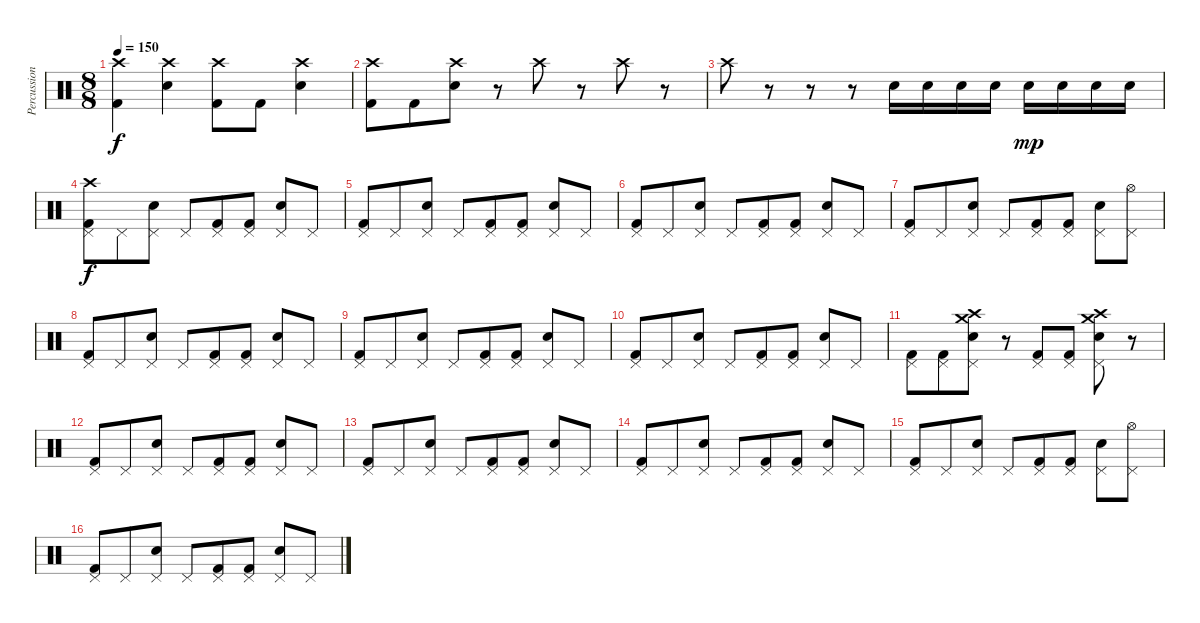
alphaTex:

\track ("Percussion" "Percussion") {instrument percussion}
\staff {score}
\articulation defaults
\ts (8 8)
\tempo 150
\clef neutral
\ks c
("Crash high (hit)" "Kick (hit) 2").4{dy f} ("Crash high (hit)" "Snare (hit) 2").4 ("Crash high (hit)" "Kick (hit) 2").8 "Kick (hit) 2".8 ("Crash high (hit)" "Snare (hit) 2").4 |
("Crash high (hit)" "Kick (hit) 2").8 "Kick (hit) 2".8 ("Crash high (hit)" "Snare (hit) 2").8 r.8 "Crash high (hit)".8 r.8 "Crash high (hit)".8 r.8 |
"Crash high (hit)".8 r.8 r.8 r.8 "Snare (hit) 2".16 "Snare (hit) 2".16 "Snare (hit) 2".16 "Snare (hit) 2".16 "Snare (hit) 2".16{dy mp} "Snare (hit) 2".16 "Snare (hit) 2".16 "Snare (hit) 2".16 |
("Pedal Hi-Hat (hit)" "Crash high (hit)" "Kick (hit) 2").8{dy f} "Pedal Hi-Hat (hit)".8 ("Pedal Hi-Hat (hit)" "Snare (hit) 2").8 "Pedal Hi-Hat (hit)".8 ("Pedal Hi-Hat (hit)" "Kick (hit) 2").8 ("Pedal Hi-Hat (hit)" "Kick (hit) 2").8 ("Pedal Hi-Hat (hit)" "Snare (hit) 2").8 "Pedal Hi-Hat (hit)".8 |
("Pedal Hi-Hat (hit)" "Kick (hit) 2").8 "Pedal Hi-Hat (hit)".8 ("Pedal Hi-Hat (hit)" "Snare (hit) 2").8 "Pedal Hi-Hat (hit)".8 ("Pedal Hi-Hat (hit)" "Kick (hit) 2").8 ("Pedal Hi-Hat (hit)" "Kick (hit) 2").8 ("Pedal Hi-Hat (hit)" "Snare (hit) 2").8 "Pedal Hi-Hat (hit)".8 |
("Pedal Hi-Hat (hit)" "Kick (hit) 2").8 "Pedal Hi-Hat (hit)".8 ("Pedal Hi-Hat (hit)" "Snare (hit) 2").8 "Pedal Hi-Hat (hit)".8 ("Pedal Hi-Hat (hit)" "Kick (hit) 2").8 ("Pedal Hi-Hat (hit)" "Kick (hit) 2").8 ("Pedal Hi-Hat (hit)" "Snare (hit) 2").8 "Pedal Hi-Hat (hit)".8 |
("Pedal Hi-Hat (hit)" "Kick (hit) 2").8 "Pedal Hi-Hat (hit)".8 ("Pedal Hi-Hat (hit)" "Snare (hit) 2").8 "Pedal Hi-Hat (hit)".8 ("Pedal Hi-Hat (hit)" "Kick (hit) 2").8 ("Pedal Hi-Hat (hit)" "Kick (hit) 2").8 ("Pedal Hi-Hat (hit)" "Snare (hit) 2").8 ("Pedal Hi-Hat (hit)" "Hi-Hat (open)").8 |
("Pedal Hi-Hat (hit)" "Kick (hit) 2").8 "Pedal Hi-Hat (hit)".8 ("Pedal Hi-Hat (hit)" "Snare (hit) 2").8 "Pedal Hi-Hat (hit)".8 ("Pedal Hi-Hat (hit)" "Kick (hit) 2").8 ("Pedal Hi-Hat (hit)" "Kick (hit) 2").8 ("Pedal Hi-Hat (hit)" "Snare (hit) 2").8 "Pedal Hi-Hat (hit)".8 |
("Pedal Hi-Hat (hit)" "Kick (hit) 2").8 "Pedal Hi-Hat (hit)".8 ("Pedal Hi-Hat (hit)" "Snare (hit) 2").8 "Pedal Hi-Hat (hit)".8 ("Pedal Hi-Hat (hit)" "Kick (hit) 2").8 ("Pedal Hi-Hat (hit)" "Kick (hit) 2").8 ("Pedal Hi-Hat (hit)" "Snare (hit) 2").8 "Pedal Hi-Hat (hit)".8 |
("Pedal Hi-Hat (hit)" "Kick (hit) 2").8 "Pedal Hi-Hat (hit)".8 ("Pedal Hi-Hat (hit)" "Snare (hit) 2").8 "Pedal Hi-Hat (hit)".8 ("Pedal Hi-Hat (hit)" "Kick (hit) 2").8 ("Pedal Hi-Hat (hit)" "Kick (hit) 2").8 ("Pedal Hi-Hat (hit)" "Snare (hit) 2").8 "Pedal Hi-Hat (hit)".8 |
("Pedal Hi-Hat (hit)" "Kick (hit) 2").8 ("Pedal Hi-Hat (hit)" "Kick (hit) 2").8 ("Pedal Hi-Hat (hit)" "Crash medium (hit)" "Crash high (hit)" "Snare (hit) 2").8 r.8 ("Pedal Hi-Hat (hit)" "Kick (hit) 2").8 ("Pedal Hi-Hat (hit)" "Kick (hit) 2").8 ("Pedal Hi-Hat (hit)" "Crash medium (hit)" "Crash high (hit)" "Snare (hit) 2").8 r.8 |
("Pedal Hi-Hat (hit)" "Kick (hit) 2").8 "Pedal Hi-Hat (hit)".8 ("Pedal Hi-Hat (hit)" "Snare (hit) 2").8 "Pedal Hi-Hat (hit)".8 ("Pedal Hi-Hat (hit)" "Kick (hit) 2").8 ("Pedal Hi-Hat (hit)" "Kick (hit) 2").8 ("Pedal Hi-Hat (hit)" "Snare (hit) 2").8 "Pedal Hi-Hat (hit)".8 |
("Pedal Hi-Hat (hit)" "Kick (hit) 2").8 "Pedal Hi-Hat (hit)".8 ("Pedal Hi-Hat (hit)" "Snare (hit) 2").8 "Pedal Hi-Hat (hit)".8 ("Pedal Hi-Hat (hit)" "Kick (hit) 2").8 ("Pedal Hi-Hat (hit)" "Kick (hit) 2").8 ("Pedal Hi-Hat (hit)" "Snare (hit) 2").8 "Pedal Hi-Hat (hit)".8 |
("Pedal Hi-Hat (hit)" "Kick (hit) 2").8 "Pedal Hi-Hat (hit)".8 ("Pedal Hi-Hat (hit)" "Snare (hit) 2").8 "Pedal Hi-Hat (hit)".8 ("Pedal Hi-Hat (hit)" "Kick (hit) 2").8 ("Pedal Hi-Hat (hit)" "Kick (hit) 2").8 ("Pedal Hi-Hat (hit)" "Snare (hit) 2").8 "Pedal Hi-Hat (hit)".8 |
("Pedal Hi-Hat (hit)" "Kick (hit) 2").8 "Pedal Hi-Hat (hit)".8 ("Pedal Hi-Hat (hit)" "Snare (hit) 2").8 "Pedal Hi-Hat (hit)".8 ("Pedal Hi-Hat (hit)" "Kick (hit) 2").8 ("Pedal Hi-Hat (hit)" "Kick (hit) 2").8 ("Pedal Hi-Hat (hit)" "Snare (hit) 2").8 ("Pedal Hi-Hat (hit)" "Hi-Hat (open)").8 |
("Pedal Hi-Hat (hit)" "Kick (hit) 2").8 "Pedal Hi-Hat (hit)".8 ("Pedal Hi-Hat (hit)" "Snare (hit) 2").8 "Pedal Hi-Hat (hit)".8 ("Pedal Hi-Hat (hit)" "Kick (hit) 2").8 ("Pedal Hi-Hat (hit)" "Kick (hit) 2").8 ("Pedal Hi-Hat (hit)" "Snare (hit) 2").8 "Pedal Hi-Hat (hit)".8
